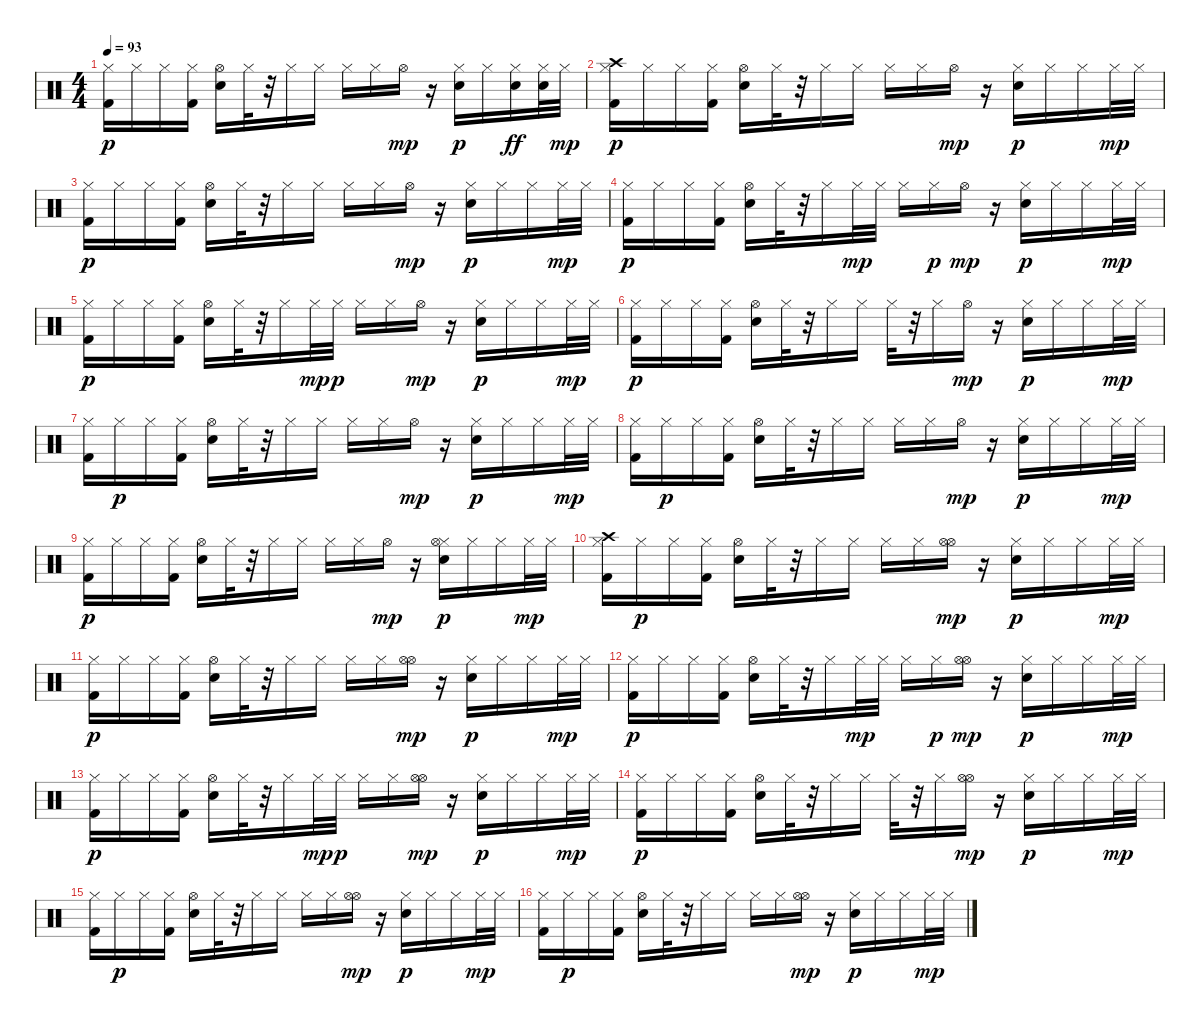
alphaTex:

\track "" {instrument percussion}
\staff {score}
\articulation defaults
\ts (4 4)
\tempo 93
\clef neutral
\ks c
("Hi-Hat (closed)" "Kick (hit) 2").16{dy p} "Hi-Hat (closed)".16 "Hi-Hat (closed)".16 ("Hi-Hat (closed)" "Kick (hit) 2").16 ("Hi-Hat (open)" "Snare (hit) 2").16 "Hi-Hat (closed)".32 r.32 "Hi-Hat (closed)".16 "Hi-Hat (closed)".16 "Hi-Hat (closed)".16 "Hi-Hat (closed)".16 "Hi-Hat (open)".16{dy mp} r.16 ("Hi-Hat (closed)" "Snare (hit) 2").16{dy p} "Hi-Hat (closed)".16 ("Hi-Hat (closed)" "Electric Snare (hit)").16{dy ff} ("Hi-Hat (closed)" "Electric Snare (hit)").32 "Hi-Hat (closed)".32{dy mp} |
("Hi-Hat (closed)" "Kick (hit) 2" "Crash high (hit)").16{dy p} "Hi-Hat (closed)".16 "Hi-Hat (closed)".16 ("Hi-Hat (closed)" "Kick (hit) 2").16 ("Hi-Hat (open)" "Snare (hit) 2").16 "Hi-Hat (closed)".32 r.32 "Hi-Hat (closed)".16 "Hi-Hat (closed)".16 "Hi-Hat (closed)".16 "Hi-Hat (closed)".16 "Hi-Hat (open)".16{dy mp} r.16 ("Hi-Hat (closed)" "Snare (hit) 2").16{dy p} "Hi-Hat (closed)".16 "Hi-Hat (closed)".16 "Hi-Hat (closed)".32{dy mp} "Hi-Hat (closed)".32 |
("Hi-Hat (closed)" "Kick (hit) 2").16{dy p} "Hi-Hat (closed)".16 "Hi-Hat (closed)".16 ("Hi-Hat (closed)" "Kick (hit) 2").16 ("Hi-Hat (open)" "Snare (hit) 2").16 "Hi-Hat (closed)".32 r.32 "Hi-Hat (closed)".16 "Hi-Hat (closed)".16 "Hi-Hat (closed)".16 "Hi-Hat (closed)".16 "Hi-Hat (open)".16{dy mp} r.16 ("Hi-Hat (closed)" "Snare (hit) 2").16{dy p} "Hi-Hat (closed)".16 "Hi-Hat (closed)".16 "Hi-Hat (closed)".32{dy mp} "Hi-Hat (closed)".32 |
("Hi-Hat (closed)" "Kick (hit) 2").16{dy p} "Hi-Hat (closed)".16 "Hi-Hat (closed)".16 ("Hi-Hat (closed)" "Kick (hit) 2").16 ("Hi-Hat (open)" "Snare (hit) 2").16 "Hi-Hat (closed)".32 r.32 "Hi-Hat (closed)".16 "Hi-Hat (closed)".32{dy mp} "Hi-Hat (closed)".32 "Hi-Hat (closed)".16 "Hi-Hat (closed)".16{dy p} "Hi-Hat (open)".16{dy mp} r.16 ("Hi-Hat (closed)" "Snare (hit) 2").16{dy p} "Hi-Hat (closed)".16 "Hi-Hat (closed)".16 "Hi-Hat (closed)".32{dy mp} "Hi-Hat (closed)".32 |
("Hi-Hat (closed)" "Kick (hit) 2").16{dy p} "Hi-Hat (closed)".16 "Hi-Hat (closed)".16 ("Hi-Hat (closed)" "Kick (hit) 2").16 ("Hi-Hat (open)" "Snare (hit) 2").16 "Hi-Hat (closed)".32 r.32 "Hi-Hat (closed)".16 "Hi-Hat (closed)".32{dy mp} "Hi-Hat (closed)".32{dy p} "Hi-Hat (closed)".16 "Hi-Hat (closed)".16 "Hi-Hat (open)".16{dy mp} r.16 ("Hi-Hat (closed)" "Snare (hit) 2").16{dy p} "Hi-Hat (closed)".16 "Hi-Hat (closed)".16 "Hi-Hat (closed)".32{dy mp} "Hi-Hat (closed)".32 |
("Hi-Hat (closed)" "Kick (hit) 2").16{dy p} "Hi-Hat (closed)".16 "Hi-Hat (closed)".16 ("Hi-Hat (closed)" "Kick (hit) 2").16 ("Hi-Hat (open)" "Snare (hit) 2").16 "Hi-Hat (closed)".32 r.32 "Hi-Hat (closed)".16 "Hi-Hat (closed)".16 "Hi-Hat (closed)".32 r.32 "Hi-Hat (closed)".16 "Hi-Hat (open)".16{dy mp} r.16 ("Hi-Hat (closed)" "Snare (hit) 2").16{dy p} "Hi-Hat (closed)".16 "Hi-Hat (closed)".16 "Hi-Hat (closed)".32{dy mp} "Hi-Hat (closed)".32 |
("Hi-Hat (closed)" "Kick (hit) 2").16 "Hi-Hat (closed)".16{dy p} "Hi-Hat (closed)".16 ("Hi-Hat (closed)" "Kick (hit) 2").16 ("Hi-Hat (open)" "Snare (hit) 2").16 "Hi-Hat (closed)".32 r.32 "Hi-Hat (closed)".16 "Hi-Hat (closed)".16 "Hi-Hat (closed)".16 "Hi-Hat (closed)".16 "Hi-Hat (open)".16{dy mp} r.16 ("Hi-Hat (closed)" "Snare (hit) 2").16{dy p} "Hi-Hat (closed)".16 "Hi-Hat (closed)".16 "Hi-Hat (closed)".32{dy mp} "Hi-Hat (closed)".32 |
("Hi-Hat (closed)" "Kick (hit) 2").16 "Hi-Hat (closed)".16{dy p} "Hi-Hat (closed)".16 ("Hi-Hat (closed)" "Kick (hit) 2").16 ("Hi-Hat (open)" "Snare (hit) 2").16 "Hi-Hat (closed)".32 r.32 "Hi-Hat (closed)".16 "Hi-Hat (closed)".16 "Hi-Hat (closed)".16 "Hi-Hat (closed)".16 "Hi-Hat (open)".16{dy mp} r.16 ("Hi-Hat (closed)" "Snare (hit) 2").16{dy p} "Hi-Hat (closed)".16 "Hi-Hat (closed)".16 "Hi-Hat (closed)".32{dy mp} "Hi-Hat (closed)".32 |
("Hi-Hat (closed)" "Kick (hit) 2").16{dy p} "Hi-Hat (closed)".16 "Hi-Hat (closed)".16 ("Hi-Hat (closed)" "Kick (hit) 2").16 ("Hi-Hat (open)" "Snare (hit) 2").16 "Hi-Hat (closed)".32 r.32 "Hi-Hat (closed)".16 "Hi-Hat (closed)".16 "Hi-Hat (closed)".16 "Hi-Hat (closed)".16 "Hi-Hat (open)".16{dy mp} r.16 ("Hi-Hat (closed)" "Snare (hit) 2" "Hi-Hat (open)").16{dy p} "Hi-Hat (closed)".16 "Hi-Hat (closed)".16 "Hi-Hat (closed)".32{dy mp} "Hi-Hat (closed)".32 |
("Hi-Hat (closed)" "Kick (hit) 2" "Crash high (hit)").16 "Hi-Hat (closed)".16{dy p} "Hi-Hat (closed)".16 ("Hi-Hat (closed)" "Kick (hit) 2").16 ("Hi-Hat (open)" "Snare (hit) 2").16 "Hi-Hat (closed)".32 r.32 "Hi-Hat (closed)".16 "Hi-Hat (closed)".16 "Hi-Hat (closed)".16 "Hi-Hat (closed)".16 ("Hi-Hat (open)" "Hi-Hat (open)").16{dy mp} r.16 ("Hi-Hat (closed)" "Snare (hit) 2").16{dy p} "Hi-Hat (closed)".16 "Hi-Hat (closed)".16 "Hi-Hat (closed)".32{dy mp} "Hi-Hat (closed)".32 |
("Hi-Hat (closed)" "Kick (hit) 2").16{dy p} "Hi-Hat (closed)".16 "Hi-Hat (closed)".16 ("Hi-Hat (closed)" "Kick (hit) 2").16 ("Hi-Hat (open)" "Snare (hit) 2").16 "Hi-Hat (closed)".32 r.32 "Hi-Hat (closed)".16 "Hi-Hat (closed)".16 "Hi-Hat (closed)".16 "Hi-Hat (closed)".16 ("Hi-Hat (open)" "Hi-Hat (open)").16{dy mp} r.16 ("Hi-Hat (closed)" "Snare (hit) 2").16{dy p} "Hi-Hat (closed)".16 "Hi-Hat (closed)".16 "Hi-Hat (closed)".32{dy mp} "Hi-Hat (closed)".32 |
("Hi-Hat (closed)" "Kick (hit) 2").16{dy p} "Hi-Hat (closed)".16 "Hi-Hat (closed)".16 ("Hi-Hat (closed)" "Kick (hit) 2").16 ("Hi-Hat (open)" "Snare (hit) 2").16 "Hi-Hat (closed)".32 r.32 "Hi-Hat (closed)".16 "Hi-Hat (closed)".32{dy mp} "Hi-Hat (closed)".32 "Hi-Hat (closed)".16 "Hi-Hat (closed)".16{dy p} ("Hi-Hat (open)" "Hi-Hat (open)").16{dy mp} r.16 ("Hi-Hat (closed)" "Snare (hit) 2").16{dy p} "Hi-Hat (closed)".16 "Hi-Hat (closed)".16 "Hi-Hat (closed)".32{dy mp} "Hi-Hat (closed)".32 |
("Hi-Hat (closed)" "Kick (hit) 2").16{dy p} "Hi-Hat (closed)".16 "Hi-Hat (closed)".16 ("Hi-Hat (closed)" "Kick (hit) 2").16 ("Hi-Hat (open)" "Snare (hit) 2").16 "Hi-Hat (closed)".32 r.32 "Hi-Hat (closed)".16 "Hi-Hat (closed)".32{dy mp} "Hi-Hat (closed)".32{dy p} "Hi-Hat (closed)".16 "Hi-Hat (closed)".16 ("Hi-Hat (open)" "Hi-Hat (open)").16{dy mp} r.16 ("Hi-Hat (closed)" "Snare (hit) 2").16{dy p} "Hi-Hat (closed)".16 "Hi-Hat (closed)".16 "Hi-Hat (closed)".32{dy mp} "Hi-Hat (closed)".32 |
("Hi-Hat (closed)" "Kick (hit) 2").16{dy p} "Hi-Hat (closed)".16 "Hi-Hat (closed)".16 ("Hi-Hat (closed)" "Kick (hit) 2").16 ("Hi-Hat (open)" "Snare (hit) 2").16 "Hi-Hat (closed)".32 r.32 "Hi-Hat (closed)".16 "Hi-Hat (closed)".16 "Hi-Hat (closed)".32 r.32 "Hi-Hat (closed)".16 ("Hi-Hat (open)" "Hi-Hat (open)").16{dy mp} r.16 ("Hi-Hat (closed)" "Snare (hit) 2").16{dy p} "Hi-Hat (closed)".16 "Hi-Hat (closed)".16 "Hi-Hat (closed)".32{dy mp} "Hi-Hat (closed)".32 |
("Hi-Hat (closed)" "Kick (hit) 2").16 "Hi-Hat (closed)".16{dy p} "Hi-Hat (closed)".16 ("Hi-Hat (closed)" "Kick (hit) 2").16 ("Hi-Hat (open)" "Snare (hit) 2").16 "Hi-Hat (closed)".32 r.32 "Hi-Hat (closed)".16 "Hi-Hat (closed)".16 "Hi-Hat (closed)".16 "Hi-Hat (closed)".16 ("Hi-Hat (open)" "Hi-Hat (open)").16{dy mp} r.16 ("Hi-Hat (closed)" "Snare (hit) 2").16{dy p} "Hi-Hat (closed)".16 "Hi-Hat (closed)".16 "Hi-Hat (closed)".32{dy mp} "Hi-Hat (closed)".32 |
("Hi-Hat (closed)" "Kick (hit) 2").16 "Hi-Hat (closed)".16{dy p} "Hi-Hat (closed)".16 ("Hi-Hat (closed)" "Kick (hit) 2").16 ("Hi-Hat (open)" "Snare (hit) 2").16 "Hi-Hat (closed)".32 r.32 "Hi-Hat (closed)".16 "Hi-Hat (closed)".16 "Hi-Hat (closed)".16 "Hi-Hat (closed)".16 ("Hi-Hat (open)" "Hi-Hat (open)").16{dy mp} r.16 ("Hi-Hat (closed)" "Snare (hit) 2").16{dy p} "Hi-Hat (closed)".16 "Hi-Hat (closed)".16 "Hi-Hat (closed)".32{dy mp} "Hi-Hat (closed)".32
